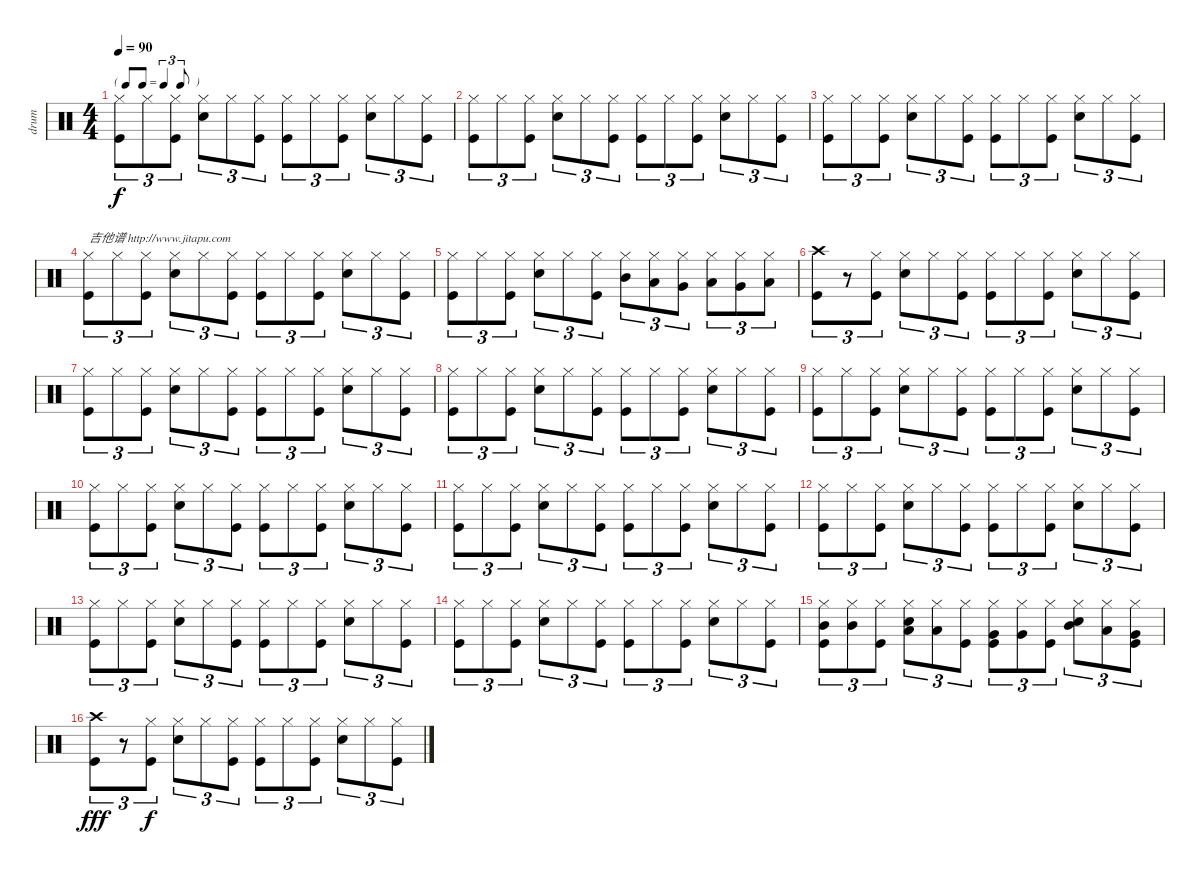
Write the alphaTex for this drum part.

\track ("drum" "drum") {instrument percussion}
\staff {score}
\articulation defaults
\ts (4 4)
\tf triplet8th
\tempo 90
\clef neutral
\ks c
("Hi-Hat (closed)" "Kick (hit)").8{tu (3 2) dy f} "Hi-Hat (closed)".8{tu (3 2)} ("Hi-Hat (closed)" "Kick (hit)").8{tu (3 2)} ("Hi-Hat (closed)" "Snare (hit) 2").8{tu (3 2)} "Hi-Hat (closed)".8{tu (3 2)} ("Hi-Hat (closed)" "Kick (hit)").8{tu (3 2)} ("Hi-Hat (closed)" "Kick (hit)").8{tu (3 2)} "Hi-Hat (closed)".8{tu (3 2)} ("Hi-Hat (closed)" "Kick (hit)").8{tu (3 2)} ("Hi-Hat (closed)" "Snare (hit) 2").8{tu (3 2)} "Hi-Hat (closed)".8{tu (3 2)} ("Hi-Hat (closed)" "Kick (hit)").8{tu (3 2)} |
("Hi-Hat (closed)" "Kick (hit)").8{tu (3 2)} "Hi-Hat (closed)".8{tu (3 2)} ("Hi-Hat (closed)" "Kick (hit)").8{tu (3 2)} ("Hi-Hat (closed)" "Snare (hit) 2").8{tu (3 2)} "Hi-Hat (closed)".8{tu (3 2)} ("Hi-Hat (closed)" "Kick (hit)").8{tu (3 2)} ("Hi-Hat (closed)" "Kick (hit)").8{tu (3 2)} "Hi-Hat (closed)".8{tu (3 2)} ("Hi-Hat (closed)" "Kick (hit)").8{tu (3 2)} ("Hi-Hat (closed)" "Snare (hit) 2").8{tu (3 2)} "Hi-Hat (closed)".8{tu (3 2)} ("Hi-Hat (closed)" "Kick (hit)").8{tu (3 2)} |
("Hi-Hat (closed)" "Kick (hit)").8{tu (3 2)} "Hi-Hat (closed)".8{tu (3 2)} ("Hi-Hat (closed)" "Kick (hit)").8{tu (3 2)} ("Hi-Hat (closed)" "Snare (hit) 2").8{tu (3 2)} "Hi-Hat (closed)".8{tu (3 2)} ("Hi-Hat (closed)" "Kick (hit)").8{tu (3 2)} ("Hi-Hat (closed)" "Kick (hit)").8{tu (3 2)} "Hi-Hat (closed)".8{tu (3 2)} ("Hi-Hat (closed)" "Kick (hit)").8{tu (3 2)} ("Hi-Hat (closed)" "Snare (hit) 2").8{tu (3 2)} "Hi-Hat (closed)".8{tu (3 2)} ("Hi-Hat (closed)" "Kick (hit)").8{tu (3 2)} |
("Hi-Hat (closed)" "Kick (hit)").8{tu (3 2) txt "吉他谱 http://www.jitapu.com"} "Hi-Hat (closed)".8{tu (3 2)} ("Hi-Hat (closed)" "Kick (hit)").8{tu (3 2)} ("Hi-Hat (closed)" "Snare (hit) 2").8{tu (3 2)} "Hi-Hat (closed)".8{tu (3 2)} ("Hi-Hat (closed)" "Kick (hit)").8{tu (3 2)} ("Hi-Hat (closed)" "Kick (hit)").8{tu (3 2)} "Hi-Hat (closed)".8{tu (3 2)} ("Hi-Hat (closed)" "Kick (hit)").8{tu (3 2)} ("Hi-Hat (closed)" "Snare (hit) 2").8{tu (3 2)} "Hi-Hat (closed)".8{tu (3 2)} ("Hi-Hat (closed)" "Kick (hit)").8{tu (3 2)} |
("Hi-Hat (closed)" "Kick (hit)").8{tu (3 2)} "Hi-Hat (closed)".8{tu (3 2)} ("Hi-Hat (closed)" "Kick (hit)").8{tu (3 2)} ("Hi-Hat (closed)" "Snare (hit) 2").8{tu (3 2)} "Hi-Hat (closed)".8{tu (3 2)} ("Hi-Hat (closed)" "Kick (hit)").8{tu (3 2)} ("Hi-Hat (closed)" "Mid Tom (hit)").8{tu (3 2)} ("Hi-Hat (closed)" "Low Tom (hit)").8{tu (3 2)} ("Hi-Hat (closed)" "Very Low Tom (hit)").8{tu (3 2)} ("Hi-Hat (closed)" "Low Tom (hit)").8{tu (3 2)} ("Hi-Hat (closed)" "Very Low Tom (hit)").8{tu (3 2)} ("Hi-Hat (closed)" "Low Floor Tom (hit)").8{tu (3 2)} |
("Crash high (hit)" "Kick (hit)").8{tu (3 2)} r.8{tu (3 2)} ("Hi-Hat (closed)" "Kick (hit)").8{tu (3 2)} ("Hi-Hat (closed)" "Snare (hit) 2").8{tu (3 2)} "Hi-Hat (closed)".8{tu (3 2)} ("Hi-Hat (closed)" "Kick (hit)").8{tu (3 2)} ("Hi-Hat (closed)" "Kick (hit)").8{tu (3 2)} "Hi-Hat (closed)".8{tu (3 2)} ("Hi-Hat (closed)" "Kick (hit)").8{tu (3 2)} ("Hi-Hat (closed)" "Snare (hit) 2").8{tu (3 2)} "Hi-Hat (closed)".8{tu (3 2)} ("Hi-Hat (closed)" "Kick (hit)").8{tu (3 2)} |
("Hi-Hat (closed)" "Kick (hit)").8{tu (3 2)} "Hi-Hat (closed)".8{tu (3 2)} ("Hi-Hat (closed)" "Kick (hit)").8{tu (3 2)} ("Hi-Hat (closed)" "Snare (hit) 2").8{tu (3 2)} "Hi-Hat (closed)".8{tu (3 2)} ("Hi-Hat (closed)" "Kick (hit)").8{tu (3 2)} ("Hi-Hat (closed)" "Kick (hit)").8{tu (3 2)} "Hi-Hat (closed)".8{tu (3 2)} ("Hi-Hat (closed)" "Kick (hit)").8{tu (3 2)} ("Hi-Hat (closed)" "Snare (hit) 2").8{tu (3 2)} "Hi-Hat (closed)".8{tu (3 2)} ("Hi-Hat (closed)" "Kick (hit)").8{tu (3 2)} |
("Hi-Hat (closed)" "Kick (hit)").8{tu (3 2)} "Hi-Hat (closed)".8{tu (3 2)} ("Hi-Hat (closed)" "Kick (hit)").8{tu (3 2)} ("Hi-Hat (closed)" "Snare (hit) 2").8{tu (3 2)} "Hi-Hat (closed)".8{tu (3 2)} ("Hi-Hat (closed)" "Kick (hit)").8{tu (3 2)} ("Hi-Hat (closed)" "Kick (hit)").8{tu (3 2)} "Hi-Hat (closed)".8{tu (3 2)} ("Hi-Hat (closed)" "Kick (hit)").8{tu (3 2)} ("Hi-Hat (closed)" "Snare (hit) 2").8{tu (3 2)} "Hi-Hat (closed)".8{tu (3 2)} ("Hi-Hat (closed)" "Kick (hit)").8{tu (3 2)} |
("Hi-Hat (closed)" "Kick (hit)").8{tu (3 2)} "Hi-Hat (closed)".8{tu (3 2)} ("Hi-Hat (closed)" "Kick (hit)").8{tu (3 2)} ("Hi-Hat (closed)" "Snare (hit) 2").8{tu (3 2)} "Hi-Hat (closed)".8{tu (3 2)} ("Hi-Hat (closed)" "Kick (hit)").8{tu (3 2)} ("Hi-Hat (closed)" "Kick (hit)").8{tu (3 2)} "Hi-Hat (closed)".8{tu (3 2)} ("Hi-Hat (closed)" "Kick (hit)").8{tu (3 2)} ("Hi-Hat (closed)" "Snare (hit) 2").8{tu (3 2)} "Hi-Hat (closed)".8{tu (3 2)} ("Hi-Hat (closed)" "Kick (hit)").8{tu (3 2)} |
("Hi-Hat (closed)" "Kick (hit)").8{tu (3 2)} "Hi-Hat (closed)".8{tu (3 2)} ("Hi-Hat (closed)" "Kick (hit)").8{tu (3 2)} ("Hi-Hat (closed)" "Snare (hit) 2").8{tu (3 2)} "Hi-Hat (closed)".8{tu (3 2)} ("Hi-Hat (closed)" "Kick (hit)").8{tu (3 2)} ("Hi-Hat (closed)" "Kick (hit)").8{tu (3 2)} "Hi-Hat (closed)".8{tu (3 2)} ("Hi-Hat (closed)" "Kick (hit)").8{tu (3 2)} ("Hi-Hat (closed)" "Snare (hit) 2").8{tu (3 2)} "Hi-Hat (closed)".8{tu (3 2)} ("Hi-Hat (closed)" "Kick (hit)").8{tu (3 2)} |
("Hi-Hat (closed)" "Kick (hit)").8{tu (3 2)} "Hi-Hat (closed)".8{tu (3 2)} ("Hi-Hat (closed)" "Kick (hit)").8{tu (3 2)} ("Hi-Hat (closed)" "Snare (hit) 2").8{tu (3 2)} "Hi-Hat (closed)".8{tu (3 2)} ("Hi-Hat (closed)" "Kick (hit)").8{tu (3 2)} ("Hi-Hat (closed)" "Kick (hit)").8{tu (3 2)} "Hi-Hat (closed)".8{tu (3 2)} ("Hi-Hat (closed)" "Kick (hit)").8{tu (3 2)} ("Hi-Hat (closed)" "Snare (hit) 2").8{tu (3 2)} "Hi-Hat (closed)".8{tu (3 2)} ("Hi-Hat (closed)" "Kick (hit)").8{tu (3 2)} |
("Hi-Hat (closed)" "Kick (hit)").8{tu (3 2)} "Hi-Hat (closed)".8{tu (3 2)} ("Hi-Hat (closed)" "Kick (hit)").8{tu (3 2)} ("Hi-Hat (closed)" "Snare (hit) 2").8{tu (3 2)} "Hi-Hat (closed)".8{tu (3 2)} ("Hi-Hat (closed)" "Kick (hit)").8{tu (3 2)} ("Hi-Hat (closed)" "Kick (hit)").8{tu (3 2)} "Hi-Hat (closed)".8{tu (3 2)} ("Hi-Hat (closed)" "Kick (hit)").8{tu (3 2)} ("Hi-Hat (closed)" "Snare (hit) 2").8{tu (3 2)} "Hi-Hat (closed)".8{tu (3 2)} ("Hi-Hat (closed)" "Kick (hit)").8{tu (3 2)} |
("Hi-Hat (closed)" "Kick (hit)").8{tu (3 2)} "Hi-Hat (closed)".8{tu (3 2)} ("Hi-Hat (closed)" "Kick (hit)").8{tu (3 2)} ("Hi-Hat (closed)" "Snare (hit) 2").8{tu (3 2)} "Hi-Hat (closed)".8{tu (3 2)} ("Hi-Hat (closed)" "Kick (hit)").8{tu (3 2)} ("Hi-Hat (closed)" "Kick (hit)").8{tu (3 2)} "Hi-Hat (closed)".8{tu (3 2)} ("Hi-Hat (closed)" "Kick (hit)").8{tu (3 2)} ("Hi-Hat (closed)" "Snare (hit) 2").8{tu (3 2)} "Hi-Hat (closed)".8{tu (3 2)} ("Hi-Hat (closed)" "Kick (hit)").8{tu (3 2)} |
("Hi-Hat (closed)" "Kick (hit)").8{tu (3 2)} "Hi-Hat (closed)".8{tu (3 2)} ("Hi-Hat (closed)" "Kick (hit)").8{tu (3 2)} ("Hi-Hat (closed)" "Snare (hit) 2").8{tu (3 2)} "Hi-Hat (closed)".8{tu (3 2)} ("Hi-Hat (closed)" "Kick (hit)").8{tu (3 2)} ("Hi-Hat (closed)" "Kick (hit)").8{tu (3 2)} "Hi-Hat (closed)".8{tu (3 2)} ("Hi-Hat (closed)" "Kick (hit)").8{tu (3 2)} ("Hi-Hat (closed)" "Snare (hit) 2").8{tu (3 2)} "Hi-Hat (closed)".8{tu (3 2)} ("Hi-Hat (closed)" "Kick (hit)").8{tu (3 2)} |
("Hi-Hat (closed)" "Mid Tom (hit)" "Kick (hit)").8{tu (3 2)} ("Hi-Hat (closed)" "Mid Tom (hit)").8{tu (3 2)} ("Hi-Hat (closed)" "Kick (hit)").8{tu (3 2)} ("Hi-Hat (closed)" "Low Tom (hit)" "Snare (hit) 2").8{tu (3 2)} ("Hi-Hat (closed)" "Low Tom (hit)").8{tu (3 2)} ("Hi-Hat (closed)" "Kick (hit)").8{tu (3 2)} ("Hi-Hat (closed)" "Very Low Tom (hit)" "Kick (hit)").8{tu (3 2)} ("Hi-Hat (closed)" "Very Low Tom (hit)").8{tu (3 2)} ("Hi-Hat (closed)" "Kick (hit)").8{tu (3 2)} ("Hi-Hat (closed)" "Mid Tom (hit)" "Snare (hit) 2").8{tu (3 2)} ("Hi-Hat (closed)" "Low Tom (hit)").8{tu (3 2)} ("Hi-Hat (closed)" "Very Low Tom (hit)" "Kick (hit)").8{tu (3 2)} |
("Crash high (hit)" "Kick (hit)").8{tu (3 2) dy fff} r.8{tu (3 2)} ("Hi-Hat (closed)" "Kick (hit)").8{tu (3 2) dy f} ("Hi-Hat (closed)" "Snare (hit) 2").8{tu (3 2)} "Hi-Hat (closed)".8{tu (3 2)} ("Hi-Hat (closed)" "Kick (hit)").8{tu (3 2)} ("Hi-Hat (closed)" "Kick (hit)").8{tu (3 2)} "Hi-Hat (closed)".8{tu (3 2)} ("Hi-Hat (closed)" "Kick (hit)").8{tu (3 2)} ("Hi-Hat (closed)" "Snare (hit) 2").8{tu (3 2)} "Hi-Hat (closed)".8{tu (3 2)} ("Hi-Hat (closed)" "Kick (hit)").8{tu (3 2)}
